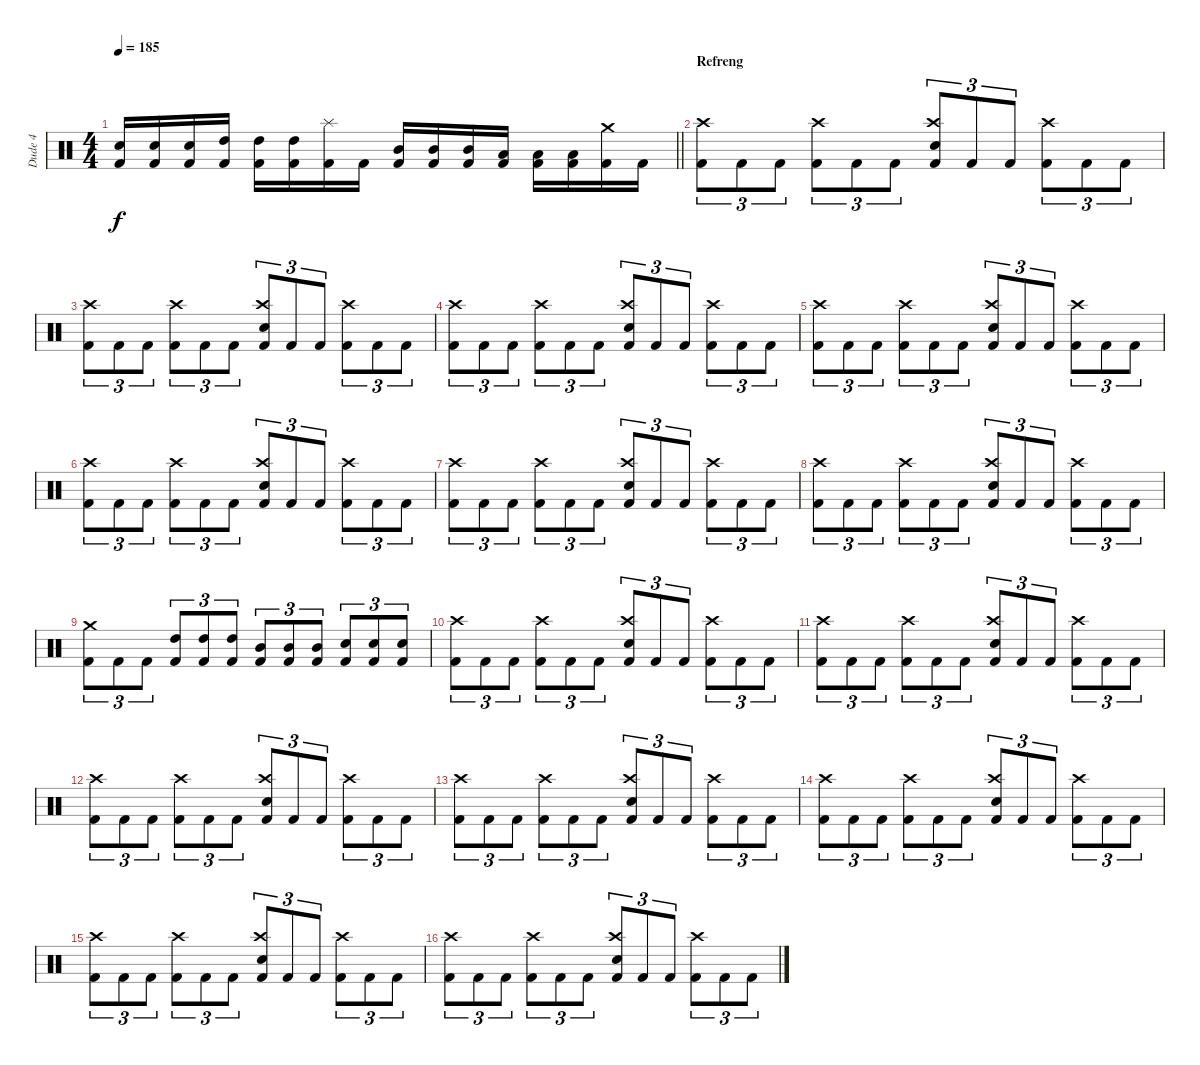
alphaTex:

\track ("Dude 4" "Dude 4") {instrument percussion}
\staff {score}
\articulation defaults
\ts (4 4)
\tempo 185
\clef neutral
\barLineRight lightlight
\ks c
("Snare (hit) 2" "Kick (hit) 2").16{dy f} ("Snare (hit) 2" "Kick (hit) 2").16 ("Snare (hit) 2" "Kick (hit) 2").16 ("High Tom (hit)" "Kick (hit) 2").16 ("High Tom (hit)" "Kick (hit) 2").16 ("High Tom (hit)" "Kick (hit) 2").16 ("Splash (hit)" "Kick (hit) 2").16 "Kick (hit) 2".16 ("Mid Tom (hit)" "Kick (hit) 2").16 ("Mid Tom (hit)" "Kick (hit) 2").16 ("Mid Tom (hit)" "Kick (hit) 2").16 ("Low Tom (hit)" "Kick (hit) 2").16 ("Low Tom (hit)" "Kick (hit) 2").16 ("Low Tom (hit)" "Kick (hit) 2").16 ("Crash medium (hit)" "Kick (hit) 2").16 "Kick (hit) 2".16 |
\section ("" "Refreng")
("Crash high (hit)" "Kick (hit) 2").8{tu (3 2)} "Kick (hit) 2".8{tu (3 2)} "Kick (hit) 2".8{tu (3 2)} ("Crash high (hit)" "Kick (hit) 2").8{tu (3 2)} "Kick (hit) 2".8{tu (3 2)} "Kick (hit) 2".8{tu (3 2)} ("Crash high (hit)" "Electric Snare (hit)" "Kick (hit) 2").8{tu (3 2)} "Kick (hit) 2".8{tu (3 2)} "Kick (hit) 2".8{tu (3 2)} ("Crash high (hit)" "Kick (hit) 2").8{tu (3 2)} "Kick (hit) 2".8{tu (3 2)} "Kick (hit) 2".8{tu (3 2)} |
("Crash high (hit)" "Kick (hit) 2").8{tu (3 2)} "Kick (hit) 2".8{tu (3 2)} "Kick (hit) 2".8{tu (3 2)} ("Crash high (hit)" "Kick (hit) 2").8{tu (3 2)} "Kick (hit) 2".8{tu (3 2)} "Kick (hit) 2".8{tu (3 2)} ("Crash high (hit)" "Electric Snare (hit)" "Kick (hit) 2").8{tu (3 2)} "Kick (hit) 2".8{tu (3 2)} "Kick (hit) 2".8{tu (3 2)} ("Crash high (hit)" "Kick (hit) 2").8{tu (3 2)} "Kick (hit) 2".8{tu (3 2)} "Kick (hit) 2".8{tu (3 2)} |
("Crash high (hit)" "Kick (hit) 2").8{tu (3 2)} "Kick (hit) 2".8{tu (3 2)} "Kick (hit) 2".8{tu (3 2)} ("Crash high (hit)" "Kick (hit) 2").8{tu (3 2)} "Kick (hit) 2".8{tu (3 2)} "Kick (hit) 2".8{tu (3 2)} ("Crash high (hit)" "Electric Snare (hit)" "Kick (hit) 2").8{tu (3 2)} "Kick (hit) 2".8{tu (3 2)} "Kick (hit) 2".8{tu (3 2)} ("Crash high (hit)" "Kick (hit) 2").8{tu (3 2)} "Kick (hit) 2".8{tu (3 2)} "Kick (hit) 2".8{tu (3 2)} |
("Crash high (hit)" "Kick (hit) 2").8{tu (3 2)} "Kick (hit) 2".8{tu (3 2)} "Kick (hit) 2".8{tu (3 2)} ("Crash high (hit)" "Kick (hit) 2").8{tu (3 2)} "Kick (hit) 2".8{tu (3 2)} "Kick (hit) 2".8{tu (3 2)} ("Crash high (hit)" "Electric Snare (hit)" "Kick (hit) 2").8{tu (3 2)} "Kick (hit) 2".8{tu (3 2)} "Kick (hit) 2".8{tu (3 2)} ("Crash high (hit)" "Kick (hit) 2").8{tu (3 2)} "Kick (hit) 2".8{tu (3 2)} "Kick (hit) 2".8{tu (3 2)} |
("Crash high (hit)" "Kick (hit) 2").8{tu (3 2)} "Kick (hit) 2".8{tu (3 2)} "Kick (hit) 2".8{tu (3 2)} ("Crash high (hit)" "Kick (hit) 2").8{tu (3 2)} "Kick (hit) 2".8{tu (3 2)} "Kick (hit) 2".8{tu (3 2)} ("Crash high (hit)" "Electric Snare (hit)" "Kick (hit) 2").8{tu (3 2)} "Kick (hit) 2".8{tu (3 2)} "Kick (hit) 2".8{tu (3 2)} ("Crash high (hit)" "Kick (hit) 2").8{tu (3 2)} "Kick (hit) 2".8{tu (3 2)} "Kick (hit) 2".8{tu (3 2)} |
("Crash high (hit)" "Kick (hit) 2").8{tu (3 2)} "Kick (hit) 2".8{tu (3 2)} "Kick (hit) 2".8{tu (3 2)} ("Crash high (hit)" "Kick (hit) 2").8{tu (3 2)} "Kick (hit) 2".8{tu (3 2)} "Kick (hit) 2".8{tu (3 2)} ("Crash high (hit)" "Electric Snare (hit)" "Kick (hit) 2").8{tu (3 2)} "Kick (hit) 2".8{tu (3 2)} "Kick (hit) 2".8{tu (3 2)} ("Crash high (hit)" "Kick (hit) 2").8{tu (3 2)} "Kick (hit) 2".8{tu (3 2)} "Kick (hit) 2".8{tu (3 2)} |
("Crash high (hit)" "Kick (hit) 2").8{tu (3 2)} "Kick (hit) 2".8{tu (3 2)} "Kick (hit) 2".8{tu (3 2)} ("Crash high (hit)" "Kick (hit) 2").8{tu (3 2)} "Kick (hit) 2".8{tu (3 2)} "Kick (hit) 2".8{tu (3 2)} ("Crash high (hit)" "Electric Snare (hit)" "Kick (hit) 2").8{tu (3 2)} "Kick (hit) 2".8{tu (3 2)} "Kick (hit) 2".8{tu (3 2)} ("Crash high (hit)" "Kick (hit) 2").8{tu (3 2)} "Kick (hit) 2".8{tu (3 2)} "Kick (hit) 2".8{tu (3 2)} |
("Crash medium (hit)" "Kick (hit) 2").8{tu (3 2)} "Kick (hit) 2".8{tu (3 2)} "Kick (hit) 2".8{tu (3 2)} ("High Tom (hit)" "Kick (hit) 2").8{tu (3 2)} ("High Tom (hit)" "Kick (hit) 2").8{tu (3 2)} ("High Tom (hit)" "Kick (hit) 2").8{tu (3 2)} ("Mid Tom (hit)" "Kick (hit) 2").8{tu (3 2)} ("Mid Tom (hit)" "Kick (hit) 2").8{tu (3 2)} ("Mid Tom (hit)" "Kick (hit) 2").8{tu (3 2)} ("Electric Snare (hit)" "Kick (hit) 2").8{tu (3 2)} ("Electric Snare (hit)" "Kick (hit) 2").8{tu (3 2)} ("Electric Snare (hit)" "Kick (hit) 2").8{tu (3 2)} |
("Crash high (hit)" "Kick (hit) 2").8{tu (3 2)} "Kick (hit) 2".8{tu (3 2)} "Kick (hit) 2".8{tu (3 2)} ("Crash high (hit)" "Kick (hit) 2").8{tu (3 2)} "Kick (hit) 2".8{tu (3 2)} "Kick (hit) 2".8{tu (3 2)} ("Crash high (hit)" "Electric Snare (hit)" "Kick (hit) 2").8{tu (3 2)} "Kick (hit) 2".8{tu (3 2)} "Kick (hit) 2".8{tu (3 2)} ("Crash high (hit)" "Kick (hit) 2").8{tu (3 2)} "Kick (hit) 2".8{tu (3 2)} "Kick (hit) 2".8{tu (3 2)} |
("Crash high (hit)" "Kick (hit) 2").8{tu (3 2)} "Kick (hit) 2".8{tu (3 2)} "Kick (hit) 2".8{tu (3 2)} ("Crash high (hit)" "Kick (hit) 2").8{tu (3 2)} "Kick (hit) 2".8{tu (3 2)} "Kick (hit) 2".8{tu (3 2)} ("Crash high (hit)" "Electric Snare (hit)" "Kick (hit) 2").8{tu (3 2)} "Kick (hit) 2".8{tu (3 2)} "Kick (hit) 2".8{tu (3 2)} ("Crash high (hit)" "Kick (hit) 2").8{tu (3 2)} "Kick (hit) 2".8{tu (3 2)} "Kick (hit) 2".8{tu (3 2)} |
("Crash high (hit)" "Kick (hit) 2").8{tu (3 2)} "Kick (hit) 2".8{tu (3 2)} "Kick (hit) 2".8{tu (3 2)} ("Crash high (hit)" "Kick (hit) 2").8{tu (3 2)} "Kick (hit) 2".8{tu (3 2)} "Kick (hit) 2".8{tu (3 2)} ("Crash high (hit)" "Electric Snare (hit)" "Kick (hit) 2").8{tu (3 2)} "Kick (hit) 2".8{tu (3 2)} "Kick (hit) 2".8{tu (3 2)} ("Crash high (hit)" "Kick (hit) 2").8{tu (3 2)} "Kick (hit) 2".8{tu (3 2)} "Kick (hit) 2".8{tu (3 2)} |
("Crash high (hit)" "Kick (hit) 2").8{tu (3 2)} "Kick (hit) 2".8{tu (3 2)} "Kick (hit) 2".8{tu (3 2)} ("Crash high (hit)" "Kick (hit) 2").8{tu (3 2)} "Kick (hit) 2".8{tu (3 2)} "Kick (hit) 2".8{tu (3 2)} ("Crash high (hit)" "Electric Snare (hit)" "Kick (hit) 2").8{tu (3 2)} "Kick (hit) 2".8{tu (3 2)} "Kick (hit) 2".8{tu (3 2)} ("Crash high (hit)" "Kick (hit) 2").8{tu (3 2)} "Kick (hit) 2".8{tu (3 2)} "Kick (hit) 2".8{tu (3 2)} |
("Crash high (hit)" "Kick (hit) 2").8{tu (3 2)} "Kick (hit) 2".8{tu (3 2)} "Kick (hit) 2".8{tu (3 2)} ("Crash high (hit)" "Kick (hit) 2").8{tu (3 2)} "Kick (hit) 2".8{tu (3 2)} "Kick (hit) 2".8{tu (3 2)} ("Crash high (hit)" "Electric Snare (hit)" "Kick (hit) 2").8{tu (3 2)} "Kick (hit) 2".8{tu (3 2)} "Kick (hit) 2".8{tu (3 2)} ("Crash high (hit)" "Kick (hit) 2").8{tu (3 2)} "Kick (hit) 2".8{tu (3 2)} "Kick (hit) 2".8{tu (3 2)} |
("Crash high (hit)" "Kick (hit) 2").8{tu (3 2)} "Kick (hit) 2".8{tu (3 2)} "Kick (hit) 2".8{tu (3 2)} ("Crash high (hit)" "Kick (hit) 2").8{tu (3 2)} "Kick (hit) 2".8{tu (3 2)} "Kick (hit) 2".8{tu (3 2)} ("Crash high (hit)" "Electric Snare (hit)" "Kick (hit) 2").8{tu (3 2)} "Kick (hit) 2".8{tu (3 2)} "Kick (hit) 2".8{tu (3 2)} ("Crash high (hit)" "Kick (hit) 2").8{tu (3 2)} "Kick (hit) 2".8{tu (3 2)} "Kick (hit) 2".8{tu (3 2)} |
("Crash high (hit)" "Kick (hit) 2").8{tu (3 2)} "Kick (hit) 2".8{tu (3 2)} "Kick (hit) 2".8{tu (3 2)} ("Crash high (hit)" "Kick (hit) 2").8{tu (3 2)} "Kick (hit) 2".8{tu (3 2)} "Kick (hit) 2".8{tu (3 2)} ("Crash high (hit)" "Electric Snare (hit)" "Kick (hit) 2").8{tu (3 2)} "Kick (hit) 2".8{tu (3 2)} "Kick (hit) 2".8{tu (3 2)} ("Crash high (hit)" "Kick (hit) 2").8{tu (3 2)} "Kick (hit) 2".8{tu (3 2)} "Kick (hit) 2".8{tu (3 2)}
